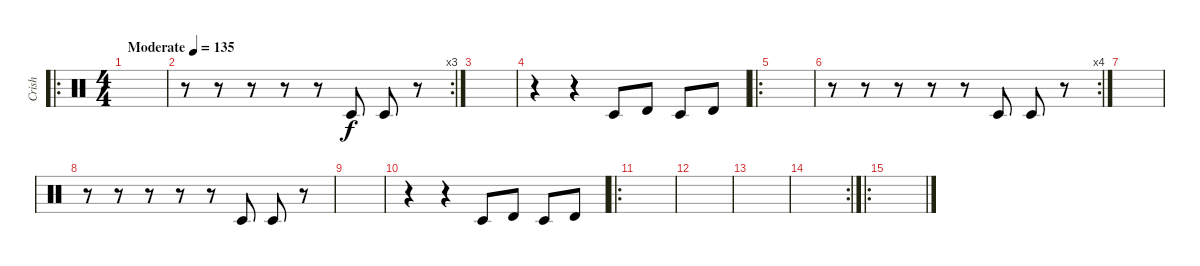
\track ("Crish" "Crish") {instrument percussion}
\staff {score}
\articulation defaults
\ro
\ts (4 4)
\tempo (135 "Moderate")
\clef neutral
\ks c
|
\rc 3
r.8 r.8 r.8 r.8 r.8 "Timbale low (hit)".8 "Timbale low (hit)".8 r.8 |
|
r.4 r.4 "Timbale low (hit)".8 "Timbale high (hit)".8 "Timbale low (hit)".8 "Timbale high (hit)".8 |
\ro
|
\rc 4
r.8 r.8 r.8 r.8 r.8 "Timbale low (hit)".8 "Timbale low (hit)".8 r.8 |
|
r.8 r.8 r.8 r.8 r.8 "Timbale low (hit)".8 "Timbale low (hit)".8 r.8 |
|
r.4 r.4 "Timbale low (hit)".8 "Timbale high (hit)".8 "Timbale low (hit)".8 "Timbale high (hit)".8 |
\ro
|
|
|
\rc 2
|
\ro
